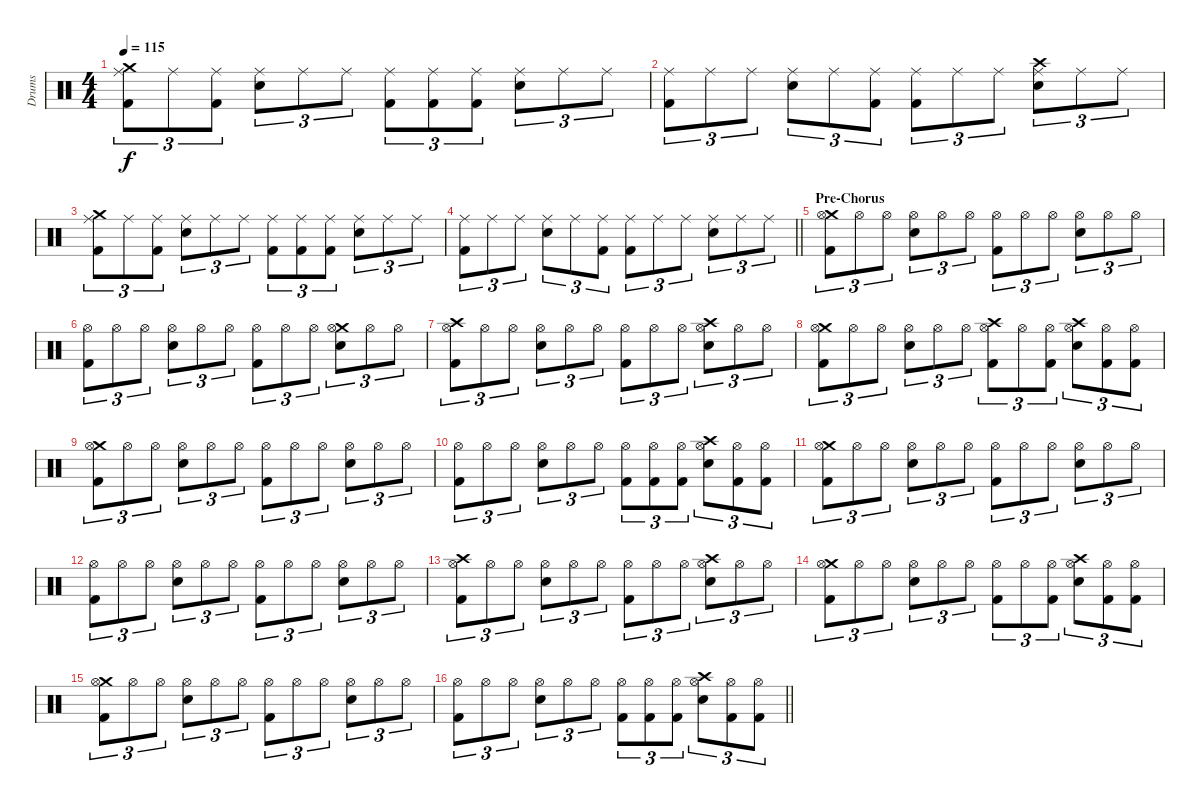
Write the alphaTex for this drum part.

\track ("Drums" "Drums") {instrument percussion}
\staff {score}
\articulation defaults
\ts (4 4)
\tempo 115
\clef neutral
\ks c
("Crash medium (hit)" "Ride (middle)" "Kick (hit) 2").8{tu (3 2) dy f} "Ride (middle)".8{tu (3 2)} ("Ride (middle)" "Kick (hit) 2").8{tu (3 2)} ("Ride (middle)" "Snare (hit) 2").8{tu (3 2)} "Ride (middle)".8{tu (3 2)} "Ride (middle)".8{tu (3 2)} ("Ride (middle)" "Kick (hit) 2").8{tu (3 2)} ("Ride (middle)" "Kick (hit) 2").8{tu (3 2)} ("Ride (middle)" "Kick (hit) 2").8{tu (3 2)} ("Ride (middle)" "Snare (hit) 2").8{tu (3 2)} "Ride (middle)".8{tu (3 2)} "Ride (middle)".8{tu (3 2)} |
("Ride (middle)" "Kick (hit) 2").8{tu (3 2)} "Ride (middle)".8{tu (3 2)} "Ride (middle)".8{tu (3 2)} ("Ride (middle)" "Snare (hit) 2").8{tu (3 2)} "Ride (middle)".8{tu (3 2)} ("Ride (middle)" "Kick (hit) 2").8{tu (3 2)} ("Ride (middle)" "Kick (hit) 2").8{tu (3 2)} "Ride (middle)".8{tu (3 2)} "Ride (middle)".8{tu (3 2)} ("Crash high (hit)" "Ride (middle)" "Snare (hit) 2").8{tu (3 2)} "Ride (middle)".8{tu (3 2)} "Ride (middle)".8{tu (3 2)} |
("Crash medium (hit)" "Ride (middle)" "Kick (hit) 2").8{tu (3 2)} "Ride (middle)".8{tu (3 2)} ("Ride (middle)" "Kick (hit) 2").8{tu (3 2)} ("Ride (middle)" "Snare (hit) 2").8{tu (3 2)} "Ride (middle)".8{tu (3 2)} "Ride (middle)".8{tu (3 2)} ("Ride (middle)" "Kick (hit) 2").8{tu (3 2)} ("Ride (middle)" "Kick (hit) 2").8{tu (3 2)} ("Ride (middle)" "Kick (hit) 2").8{tu (3 2)} ("Ride (middle)" "Snare (hit) 2").8{tu (3 2)} "Ride (middle)".8{tu (3 2)} "Ride (middle)".8{tu (3 2)} |
\barLineRight lightlight
("Ride (middle)" "Kick (hit) 2").8{tu (3 2)} "Ride (middle)".8{tu (3 2)} "Ride (middle)".8{tu (3 2)} ("Ride (middle)" "Snare (hit) 2").8{tu (3 2)} "Ride (middle)".8{tu (3 2)} ("Ride (middle)" "Kick (hit) 2").8{tu (3 2)} ("Ride (middle)" "Kick (hit) 2").8{tu (3 2)} "Ride (middle)".8{tu (3 2)} "Ride (middle)".8{tu (3 2)} ("Ride (middle)" "Snare (hit) 2").8{tu (3 2)} "Ride (middle)".8{tu (3 2)} "Ride (middle)".8{tu (3 2)} |
\section ("" "Pre-Chorus")
("Crash medium (hit)" "Hi-Hat (open)" "Kick (hit) 2").8{tu (3 2)} "Hi-Hat (open)".8{tu (3 2)} "Hi-Hat (open)".8{tu (3 2)} ("Hi-Hat (open)" "Snare (hit) 2").8{tu (3 2)} "Hi-Hat (open)".8{tu (3 2)} "Hi-Hat (open)".8{tu (3 2)} ("Hi-Hat (open)" "Kick (hit) 2").8{tu (3 2)} "Hi-Hat (open)".8{tu (3 2)} "Hi-Hat (open)".8{tu (3 2)} ("Hi-Hat (open)" "Snare (hit) 2").8{tu (3 2)} "Hi-Hat (open)".8{tu (3 2)} "Hi-Hat (open)".8{tu (3 2)} |
("Hi-Hat (open)" "Kick (hit) 2").8{tu (3 2)} "Hi-Hat (open)".8{tu (3 2)} "Hi-Hat (open)".8{tu (3 2)} ("Hi-Hat (open)" "Snare (hit) 2").8{tu (3 2)} "Hi-Hat (open)".8{tu (3 2)} "Hi-Hat (open)".8{tu (3 2)} ("Hi-Hat (open)" "Kick (hit) 2").8{tu (3 2)} "Hi-Hat (open)".8{tu (3 2)} "Hi-Hat (open)".8{tu (3 2)} ("Crash medium (hit)" "Hi-Hat (open)" "Snare (hit) 2").8{tu (3 2)} "Hi-Hat (open)".8{tu (3 2)} "Hi-Hat (open)".8{tu (3 2)} |
("Crash high (hit)" "Hi-Hat (open)" "Kick (hit) 2").8{tu (3 2)} "Hi-Hat (open)".8{tu (3 2)} "Hi-Hat (open)".8{tu (3 2)} ("Hi-Hat (open)" "Snare (hit) 2").8{tu (3 2)} "Hi-Hat (open)".8{tu (3 2)} "Hi-Hat (open)".8{tu (3 2)} ("Hi-Hat (open)" "Kick (hit) 2").8{tu (3 2)} "Hi-Hat (open)".8{tu (3 2)} "Hi-Hat (open)".8{tu (3 2)} ("Crash high (hit)" "Hi-Hat (open)" "Snare (hit) 2").8{tu (3 2)} "Hi-Hat (open)".8{tu (3 2)} "Hi-Hat (open)".8{tu (3 2)} |
("Crash medium (hit)" "Hi-Hat (open)" "Kick (hit) 2").8{tu (3 2)} "Hi-Hat (open)".8{tu (3 2)} "Hi-Hat (open)".8{tu (3 2)} ("Hi-Hat (open)" "Snare (hit) 2").8{tu (3 2)} "Hi-Hat (open)".8{tu (3 2)} "Hi-Hat (open)".8{tu (3 2)} ("Crash high (hit)" "Hi-Hat (open)" "Kick (hit) 2").8{tu (3 2)} "Hi-Hat (open)".8{tu (3 2)} ("Hi-Hat (open)" "Kick (hit) 2").8{tu (3 2)} ("Crash high (hit)" "Hi-Hat (open)" "Snare (hit) 2").8{tu (3 2)} ("Hi-Hat (open)" "Kick (hit) 2").8{tu (3 2)} ("Hi-Hat (open)" "Kick (hit) 2").8{tu (3 2)} |
("Crash medium (hit)" "Hi-Hat (open)" "Kick (hit) 2").8{tu (3 2)} "Hi-Hat (open)".8{tu (3 2)} "Hi-Hat (open)".8{tu (3 2)} ("Hi-Hat (open)" "Snare (hit) 2").8{tu (3 2)} "Hi-Hat (open)".8{tu (3 2)} "Hi-Hat (open)".8{tu (3 2)} ("Hi-Hat (open)" "Kick (hit) 2").8{tu (3 2)} "Hi-Hat (open)".8{tu (3 2)} "Hi-Hat (open)".8{tu (3 2)} ("Hi-Hat (open)" "Snare (hit) 2").8{tu (3 2)} "Hi-Hat (open)".8{tu (3 2)} "Hi-Hat (open)".8{tu (3 2)} |
("Hi-Hat (open)" "Kick (hit) 2").8{tu (3 2)} "Hi-Hat (open)".8{tu (3 2)} "Hi-Hat (open)".8{tu (3 2)} ("Hi-Hat (open)" "Snare (hit) 2").8{tu (3 2)} "Hi-Hat (open)".8{tu (3 2)} "Hi-Hat (open)".8{tu (3 2)} ("Hi-Hat (open)" "Kick (hit) 2").8{tu (3 2)} ("Hi-Hat (open)" "Kick (hit) 2").8{tu (3 2)} ("Hi-Hat (open)" "Kick (hit) 2").8{tu (3 2)} ("Crash high (hit)" "Hi-Hat (open)" "Snare (hit) 2").8{tu (3 2)} ("Hi-Hat (open)" "Kick (hit) 2").8{tu (3 2)} ("Hi-Hat (open)" "Kick (hit) 2").8{tu (3 2)} |
("Crash medium (hit)" "Hi-Hat (open)" "Kick (hit) 2").8{tu (3 2)} "Hi-Hat (open)".8{tu (3 2)} "Hi-Hat (open)".8{tu (3 2)} ("Hi-Hat (open)" "Snare (hit) 2").8{tu (3 2)} "Hi-Hat (open)".8{tu (3 2)} "Hi-Hat (open)".8{tu (3 2)} ("Hi-Hat (open)" "Kick (hit) 2").8{tu (3 2)} "Hi-Hat (open)".8{tu (3 2)} "Hi-Hat (open)".8{tu (3 2)} ("Hi-Hat (open)" "Snare (hit) 2").8{tu (3 2)} "Hi-Hat (open)".8{tu (3 2)} "Hi-Hat (open)".8{tu (3 2)} |
("Hi-Hat (open)" "Kick (hit) 2").8{tu (3 2)} "Hi-Hat (open)".8{tu (3 2)} "Hi-Hat (open)".8{tu (3 2)} ("Hi-Hat (open)" "Snare (hit) 2").8{tu (3 2)} "Hi-Hat (open)".8{tu (3 2)} "Hi-Hat (open)".8{tu (3 2)} ("Hi-Hat (open)" "Kick (hit) 2").8{tu (3 2)} "Hi-Hat (open)".8{tu (3 2)} "Hi-Hat (open)".8{tu (3 2)} ("Hi-Hat (open)" "Snare (hit) 2").8{tu (3 2)} "Hi-Hat (open)".8{tu (3 2)} "Hi-Hat (open)".8{tu (3 2)} |
("Crash high (hit)" "Hi-Hat (open)" "Kick (hit) 2").8{tu (3 2)} "Hi-Hat (open)".8{tu (3 2)} "Hi-Hat (open)".8{tu (3 2)} ("Hi-Hat (open)" "Snare (hit) 2").8{tu (3 2)} "Hi-Hat (open)".8{tu (3 2)} "Hi-Hat (open)".8{tu (3 2)} ("Hi-Hat (open)" "Kick (hit) 2").8{tu (3 2)} "Hi-Hat (open)".8{tu (3 2)} "Hi-Hat (open)".8{tu (3 2)} ("Crash high (hit)" "Hi-Hat (open)" "Snare (hit) 2").8{tu (3 2)} "Hi-Hat (open)".8{tu (3 2)} "Hi-Hat (open)".8{tu (3 2)} |
("Crash medium (hit)" "Hi-Hat (open)" "Kick (hit) 2").8{tu (3 2)} "Hi-Hat (open)".8{tu (3 2)} "Hi-Hat (open)".8{tu (3 2)} ("Hi-Hat (open)" "Snare (hit) 2").8{tu (3 2)} "Hi-Hat (open)".8{tu (3 2)} "Hi-Hat (open)".8{tu (3 2)} ("Hi-Hat (open)" "Kick (hit) 2").8{tu (3 2)} "Hi-Hat (open)".8{tu (3 2)} ("Hi-Hat (open)" "Kick (hit) 2").8{tu (3 2)} ("Crash high (hit)" "Hi-Hat (open)" "Snare (hit) 2").8{tu (3 2)} ("Hi-Hat (open)" "Kick (hit) 2").8{tu (3 2)} ("Hi-Hat (open)" "Kick (hit) 2").8{tu (3 2)} |
("Crash medium (hit)" "Hi-Hat (open)" "Kick (hit) 2").8{tu (3 2)} "Hi-Hat (open)".8{tu (3 2)} "Hi-Hat (open)".8{tu (3 2)} ("Hi-Hat (open)" "Snare (hit) 2").8{tu (3 2)} "Hi-Hat (open)".8{tu (3 2)} "Hi-Hat (open)".8{tu (3 2)} ("Hi-Hat (open)" "Kick (hit) 2").8{tu (3 2)} "Hi-Hat (open)".8{tu (3 2)} "Hi-Hat (open)".8{tu (3 2)} ("Hi-Hat (open)" "Snare (hit) 2").8{tu (3 2)} "Hi-Hat (open)".8{tu (3 2)} "Hi-Hat (open)".8{tu (3 2)} |
\barLineRight lightlight
("Hi-Hat (open)" "Kick (hit) 2").8{tu (3 2)} "Hi-Hat (open)".8{tu (3 2)} "Hi-Hat (open)".8{tu (3 2)} ("Hi-Hat (open)" "Snare (hit) 2").8{tu (3 2)} "Hi-Hat (open)".8{tu (3 2)} "Hi-Hat (open)".8{tu (3 2)} ("Hi-Hat (open)" "Kick (hit) 2").8{tu (3 2)} ("Hi-Hat (open)" "Kick (hit) 2").8{tu (3 2)} ("Hi-Hat (open)" "Kick (hit) 2").8{tu (3 2)} ("Crash high (hit)" "Hi-Hat (open)" "Snare (hit) 2").8{tu (3 2)} ("Hi-Hat (open)" "Kick (hit) 2").8{tu (3 2)} ("Hi-Hat (open)" "Kick (hit) 2").8{tu (3 2)}
